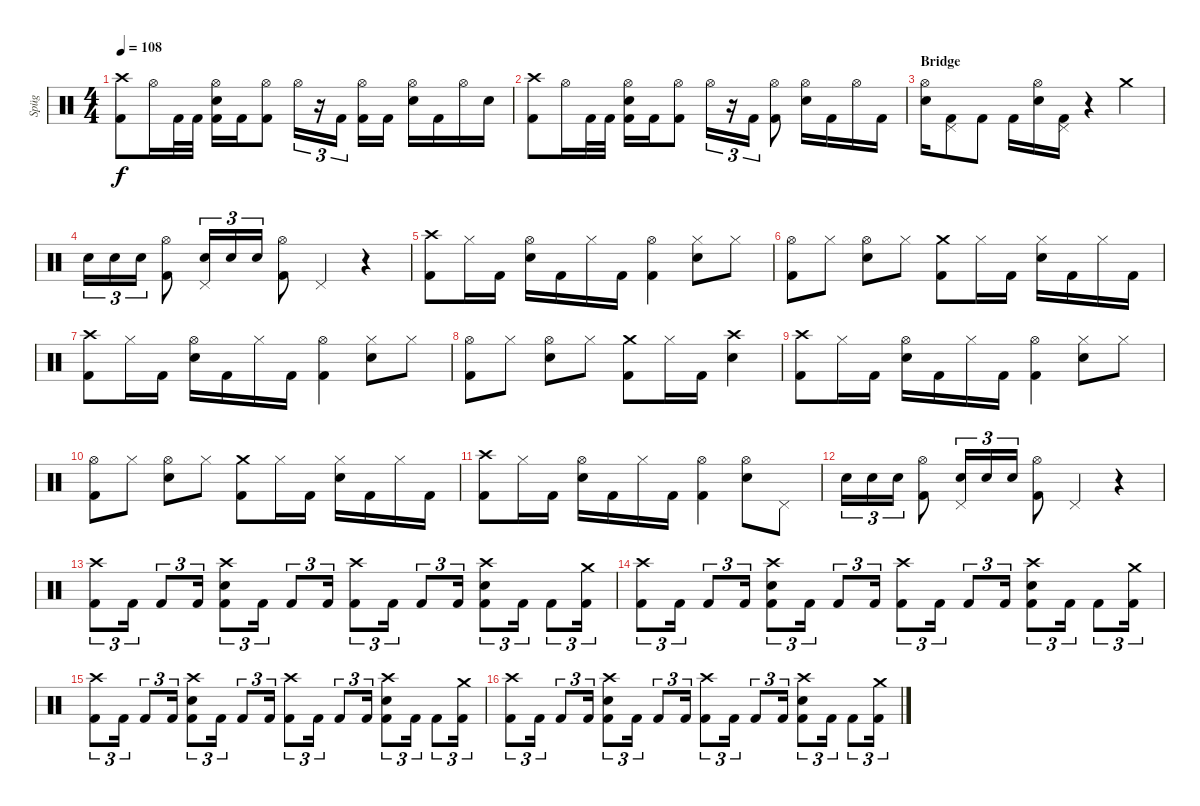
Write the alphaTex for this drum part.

\track ("Spüg" "Spüg") {instrument percussion}
\staff {score}
\articulation defaults
\ts (4 4)
\tempo 108
\clef neutral
\ks c
("Crash high (hit)" "Kick (hit) 2").8{dy f} "Hi-Hat (open)".16 "Kick (hit) 2".32 "Kick (hit) 2".32 ("Hi-Hat (open)" "Electric Snare (hit)" "Kick (hit) 2").16 "Kick (hit) 2".16 ("Hi-Hat (open)" "Kick (hit) 2").8 "Hi-Hat (open)".16{tu (3 2)} r.16{tu (3 2)} "Kick (hit) 2".16{tu (3 2)} ("Hi-Hat (open)" "Kick (hit) 2").16 "Kick (hit) 2".16 ("Hi-Hat (open)" "Electric Snare (hit)").16 "Kick (hit) 2".16 "Hi-Hat (open)".16 "Electric Snare (hit)".16 |
("Crash high (hit)" "Kick (hit) 2").8 "Hi-Hat (open)".16 "Kick (hit) 2".32 "Kick (hit) 2".32 ("Hi-Hat (open)" "Electric Snare (hit)" "Kick (hit) 2").16 "Kick (hit) 2".16 ("Hi-Hat (open)" "Kick (hit) 2").8 "Hi-Hat (open)".16{tu (3 2)} r.16{tu (3 2)} "Kick (hit) 2".16{tu (3 2)} ("Hi-Hat (open)" "Kick (hit) 2").8 ("Hi-Hat (open)" "Electric Snare (hit)").16 "Kick (hit) 2".16 "Hi-Hat (open)".16 "Kick (hit) 2".16 |
\section ("" "Bridge")
("Hi-Hat (open)" "Electric Snare (hit)").16 ("Pedal Hi-Hat (hit)" "Kick (hit) 2").8 "Kick (hit) 2".8 "Kick (hit) 2".16 ("Hi-Hat (open)" "Electric Snare (hit)").16 ("Pedal Hi-Hat (hit)" "Kick (hit) 2").16 r.4 "Crash medium (hit)".4 |
"Electric Snare (hit)".16{tu (3 2)} "Electric Snare (hit)".16{tu (3 2)} "Electric Snare (hit)".16{tu (3 2)} ("Hi-Hat (open)" "Kick (hit) 2").8 ("Pedal Hi-Hat (hit)" "Electric Snare (hit)").16{tu (3 2)} "Electric Snare (hit)".16{tu (3 2)} "Electric Snare (hit)".16{tu (3 2)} ("Hi-Hat (open)" "Kick (hit) 2").8 "Pedal Hi-Hat (hit)".4 r.4 |
("Crash high (hit)" "Kick (hit) 2").8 "Hi-Hat (closed)".16 "Kick (hit) 2".16 ("Hi-Hat (open)" "Electric Snare (hit)").16 "Kick (hit) 2".16 "Hi-Hat (closed)".16 "Kick (hit) 2".16 ("Hi-Hat (open)" "Kick (hit) 2").4 ("Hi-Hat (closed)" "Electric Snare (hit)").8 "Hi-Hat (closed)".8 |
("Hi-Hat (open)" "Kick (hit) 2").8 "Hi-Hat (closed)".8 ("Hi-Hat (open)" "Electric Snare (hit)").8 "Hi-Hat (closed)".8 ("Crash medium (hit)" "Kick (hit) 2").8 "Hi-Hat (closed)".16 "Kick (hit) 2".16 ("Hi-Hat (closed)" "Electric Snare (hit)").16 "Kick (hit) 2".16 "Hi-Hat (closed)".16 "Kick (hit) 2".16 |
("Crash high (hit)" "Kick (hit) 2").8 "Hi-Hat (closed)".16 "Kick (hit) 2".16 ("Hi-Hat (open)" "Electric Snare (hit)").16 "Kick (hit) 2".16 "Hi-Hat (closed)".16 "Kick (hit) 2".16 ("Hi-Hat (open)" "Kick (hit) 2").4 ("Hi-Hat (closed)" "Electric Snare (hit)").8 "Hi-Hat (closed)".8 |
("Hi-Hat (open)" "Kick (hit) 2").8 "Hi-Hat (closed)".8 ("Hi-Hat (open)" "Electric Snare (hit)").8 "Hi-Hat (closed)".8 ("Crash medium (hit)" "Kick (hit) 2").8 "Hi-Hat (closed)".16 "Kick (hit) 2".16 ("Crash high (hit)" "Electric Snare (hit)").4 |
("Crash high (hit)" "Kick (hit) 2").8 "Hi-Hat (closed)".16 "Kick (hit) 2".16 ("Hi-Hat (open)" "Electric Snare (hit)").16 "Kick (hit) 2".16 "Hi-Hat (closed)".16 "Kick (hit) 2".16 ("Hi-Hat (open)" "Kick (hit) 2").4 ("Hi-Hat (closed)" "Electric Snare (hit)").8 "Hi-Hat (closed)".8 |
("Hi-Hat (open)" "Kick (hit) 2").8 "Hi-Hat (closed)".8 ("Hi-Hat (open)" "Electric Snare (hit)").8 "Hi-Hat (closed)".8 ("Crash medium (hit)" "Kick (hit) 2").8 "Hi-Hat (closed)".16 "Kick (hit) 2".16 ("Hi-Hat (closed)" "Electric Snare (hit)").16 "Kick (hit) 2".16 "Hi-Hat (closed)".16 "Kick (hit) 2".16 |
("Crash high (hit)" "Kick (hit) 2").8 "Hi-Hat (closed)".16 "Kick (hit) 2".16 ("Hi-Hat (open)" "Electric Snare (hit)").16 "Kick (hit) 2".16 "Hi-Hat (closed)".16 "Kick (hit) 2".16 ("Hi-Hat (open)" "Kick (hit) 2").4 ("Hi-Hat (open)" "Electric Snare (hit)").8 "Pedal Hi-Hat (hit)".8 |
"Electric Snare (hit)".16{tu (3 2)} "Electric Snare (hit)".16{tu (3 2)} "Electric Snare (hit)".16{tu (3 2)} ("Hi-Hat (open)" "Kick (hit) 2").8 ("Pedal Hi-Hat (hit)" "Electric Snare (hit)").16{tu (3 2)} "Electric Snare (hit)".16{tu (3 2)} "Electric Snare (hit)".16{tu (3 2)} ("Hi-Hat (open)" "Kick (hit) 2").8 "Pedal Hi-Hat (hit)".4 r.4 |
("Crash high (hit)" "Kick (hit) 2").8{tu (3 2)} "Kick (hit) 2".16{tu (3 2)} "Kick (hit) 2".8{tu (3 2)} "Kick (hit) 2".16{tu (3 2)} ("Crash high (hit)" "Electric Snare (hit)" "Kick (hit) 2").8{tu (3 2)} "Kick (hit) 2".16{tu (3 2)} "Kick (hit) 2".8{tu (3 2)} "Kick (hit) 2".16{tu (3 2)} ("Crash high (hit)" "Kick (hit) 2").8{tu (3 2)} "Kick (hit) 2".16{tu (3 2)} "Kick (hit) 2".8{tu (3 2)} "Kick (hit) 2".16{tu (3 2)} ("Crash high (hit)" "Electric Snare (hit)" "Kick (hit) 2").8{tu (3 2)} "Kick (hit) 2".16{tu (3 2)} "Kick (hit) 2".8{tu (3 2)} ("Crash medium (hit)" "Kick (hit) 2").16{tu (3 2)} |
("Crash high (hit)" "Kick (hit) 2").8{tu (3 2)} "Kick (hit) 2".16{tu (3 2)} "Kick (hit) 2".8{tu (3 2)} "Kick (hit) 2".16{tu (3 2)} ("Crash high (hit)" "Electric Snare (hit)" "Kick (hit) 2").8{tu (3 2)} "Kick (hit) 2".16{tu (3 2)} "Kick (hit) 2".8{tu (3 2)} "Kick (hit) 2".16{tu (3 2)} ("Crash high (hit)" "Kick (hit) 2").8{tu (3 2)} "Kick (hit) 2".16{tu (3 2)} "Kick (hit) 2".8{tu (3 2)} "Kick (hit) 2".16{tu (3 2)} ("Crash high (hit)" "Electric Snare (hit)" "Kick (hit) 2").8{tu (3 2)} "Kick (hit) 2".16{tu (3 2)} "Kick (hit) 2".8{tu (3 2)} ("Crash medium (hit)" "Kick (hit) 2").16{tu (3 2)} |
("Crash high (hit)" "Kick (hit) 2").8{tu (3 2)} "Kick (hit) 2".16{tu (3 2)} "Kick (hit) 2".8{tu (3 2)} "Kick (hit) 2".16{tu (3 2)} ("Crash high (hit)" "Electric Snare (hit)" "Kick (hit) 2").8{tu (3 2)} "Kick (hit) 2".16{tu (3 2)} "Kick (hit) 2".8{tu (3 2)} "Kick (hit) 2".16{tu (3 2)} ("Crash high (hit)" "Kick (hit) 2").8{tu (3 2)} "Kick (hit) 2".16{tu (3 2)} "Kick (hit) 2".8{tu (3 2)} "Kick (hit) 2".16{tu (3 2)} ("Crash high (hit)" "Electric Snare (hit)" "Kick (hit) 2").8{tu (3 2)} "Kick (hit) 2".16{tu (3 2)} "Kick (hit) 2".8{tu (3 2)} ("Crash medium (hit)" "Kick (hit) 2").16{tu (3 2)} |
("Crash high (hit)" "Kick (hit) 2").8{tu (3 2)} "Kick (hit) 2".16{tu (3 2)} "Kick (hit) 2".8{tu (3 2)} "Kick (hit) 2".16{tu (3 2)} ("Crash high (hit)" "Electric Snare (hit)" "Kick (hit) 2").8{tu (3 2)} "Kick (hit) 2".16{tu (3 2)} "Kick (hit) 2".8{tu (3 2)} "Kick (hit) 2".16{tu (3 2)} ("Crash high (hit)" "Kick (hit) 2").8{tu (3 2)} "Kick (hit) 2".16{tu (3 2)} "Kick (hit) 2".8{tu (3 2)} "Kick (hit) 2".16{tu (3 2)} ("Crash high (hit)" "Electric Snare (hit)" "Kick (hit) 2").8{tu (3 2)} "Kick (hit) 2".16{tu (3 2)} "Kick (hit) 2".8{tu (3 2)} ("Crash medium (hit)" "Kick (hit) 2").16{tu (3 2)}
